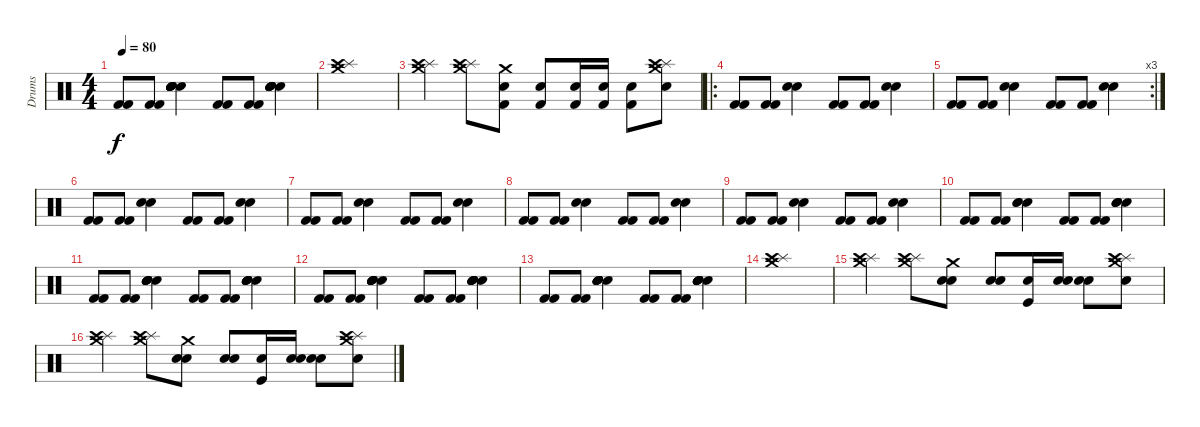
\track ("Drums" "Drums") {instrument percussion}
\staff {score}
\articulation defaults
\ts (4 4)
\tempo 80
\clef neutral
\ks c
("Kick (hit) 2" "Kick (hit) 2").8{dy f} ("Kick (hit) 2" "Kick (hit) 2").8 ("Electric Snare (hit)" "Electric Snare (hit)" "Electric Snare (hit)" "Electric Snare (hit)" "Electric Snare (hit)" "Electric Snare (hit)").4 ("Kick (hit) 2" "Kick (hit) 2").8 ("Kick (hit) 2" "Kick (hit) 2").8 ("Electric Snare (hit)" "Electric Snare (hit)" "Electric Snare (hit)" "Electric Snare (hit)" "Electric Snare (hit)" "Electric Snare (hit)").4 |
("Crash medium (hit)" "Splash (hit)" "Crash high (hit)").1 |
("Crash medium (hit)" "Splash (hit)" "Crash high (hit)").4 ("Crash medium (hit)" "Splash (hit)" "Crash high (hit)").8 ("Crash medium (hit)" "Kick (hit) 2" "Electric Snare (hit)").8 ("Kick (hit) 2" "Electric Snare (hit)").8 ("Kick (hit) 2" "Electric Snare (hit)").16 ("Kick (hit) 2" "Electric Snare (hit)").16 ("Kick (hit) 2" "Electric Snare (hit)").8 ("Crash medium (hit)" "Splash (hit)" "Crash high (hit)" "Electric Snare (hit)").8 |
\ro
("Kick (hit) 2" "Kick (hit) 2").8 ("Kick (hit) 2" "Kick (hit) 2").8 ("Electric Snare (hit)" "Electric Snare (hit)").4 ("Kick (hit) 2" "Kick (hit) 2").8 ("Kick (hit) 2" "Kick (hit) 2").8 ("Electric Snare (hit)" "Electric Snare (hit)").4 |
\rc 3
("Kick (hit) 2" "Kick (hit) 2").8 ("Kick (hit) 2" "Kick (hit) 2").8 ("Electric Snare (hit)" "Electric Snare (hit)").4 ("Kick (hit) 2" "Kick (hit) 2").8 ("Kick (hit) 2" "Kick (hit) 2").8 ("Electric Snare (hit)" "Electric Snare (hit)").4 |
("Kick (hit) 2" "Kick (hit) 2").8 ("Kick (hit) 2" "Kick (hit) 2").8 ("Electric Snare (hit)" "Electric Snare (hit)").4 ("Kick (hit) 2" "Kick (hit) 2").8 ("Kick (hit) 2" "Kick (hit) 2").8 ("Electric Snare (hit)" "Electric Snare (hit)").4 |
("Kick (hit) 2" "Kick (hit) 2").8 ("Kick (hit) 2" "Kick (hit) 2").8 ("Electric Snare (hit)" "Electric Snare (hit)").4 ("Kick (hit) 2" "Kick (hit) 2").8 ("Kick (hit) 2" "Kick (hit) 2").8 ("Electric Snare (hit)" "Electric Snare (hit)").4 |
("Kick (hit) 2" "Kick (hit) 2").8 ("Kick (hit) 2" "Kick (hit) 2").8 ("Electric Snare (hit)" "Electric Snare (hit)").4 ("Kick (hit) 2" "Kick (hit) 2").8 ("Kick (hit) 2" "Kick (hit) 2").8 ("Electric Snare (hit)" "Electric Snare (hit)").4 |
("Kick (hit) 2" "Kick (hit) 2").8 ("Kick (hit) 2" "Kick (hit) 2").8 ("Electric Snare (hit)" "Electric Snare (hit)").4 ("Kick (hit) 2" "Kick (hit) 2").8 ("Kick (hit) 2" "Kick (hit) 2").8 ("Electric Snare (hit)" "Electric Snare (hit)").4 |
("Kick (hit) 2" "Kick (hit) 2").8 ("Kick (hit) 2" "Kick (hit) 2").8 ("Electric Snare (hit)" "Electric Snare (hit)" "Electric Snare (hit)").4 ("Kick (hit) 2" "Kick (hit) 2").8 ("Kick (hit) 2" "Kick (hit) 2").8 ("Electric Snare (hit)" "Electric Snare (hit)" "Electric Snare (hit)" "Electric Snare (hit)").4 |
("Kick (hit) 2" "Kick (hit) 2").8 ("Kick (hit) 2" "Kick (hit) 2").8 ("Electric Snare (hit)" "Electric Snare (hit)" "Electric Snare (hit)" "Electric Snare (hit)" "Electric Snare (hit)").4 ("Kick (hit) 2" "Kick (hit) 2").8 ("Kick (hit) 2" "Kick (hit) 2").8 ("Electric Snare (hit)" "Electric Snare (hit)" "Electric Snare (hit)" "Electric Snare (hit)" "Electric Snare (hit)").4 |
("Kick (hit) 2" "Kick (hit) 2").8 ("Kick (hit) 2" "Kick (hit) 2").8 ("Electric Snare (hit)" "Electric Snare (hit)" "Electric Snare (hit)" "Electric Snare (hit)" "Electric Snare (hit)" "Electric Snare (hit)").4 ("Kick (hit) 2" "Kick (hit) 2").8 ("Kick (hit) 2" "Kick (hit) 2").8 ("Electric Snare (hit)" "Electric Snare (hit)" "Electric Snare (hit)" "Electric Snare (hit)" "Electric Snare (hit)" "Electric Snare (hit)").4 |
("Kick (hit) 2" "Kick (hit) 2").8 ("Kick (hit) 2" "Kick (hit) 2").8 ("Electric Snare (hit)" "Electric Snare (hit)" "Electric Snare (hit)" "Electric Snare (hit)" "Electric Snare (hit)" "Electric Snare (hit)").4 ("Kick (hit) 2" "Kick (hit) 2").8 ("Kick (hit) 2" "Kick (hit) 2").8 ("Electric Snare (hit)" "Electric Snare (hit)" "Electric Snare (hit)" "Electric Snare (hit)" "Electric Snare (hit)" "Electric Snare (hit)").4 |
("Crash medium (hit)" "Splash (hit)" "Crash high (hit)").1 |
("Crash medium (hit)" "Splash (hit)" "Crash high (hit)").4 ("Crash medium (hit)" "Splash (hit)" "Crash high (hit)").8 ("Crash medium (hit)" "Metronome (bell)" "Electric Snare (hit)").8 ("Metronome (bell)" "Electric Snare (hit)").8 ("Kick (hit)" "Electric Snare (hit)").16 ("Metronome (bell)" "Electric Snare (hit)").16 ("Metronome (bell)" "Electric Snare (hit)").8 ("Crash medium (hit)" "Splash (hit)" "Crash high (hit)" "Electric Snare (hit)").8 |
("Crash medium (hit)" "Splash (hit)" "Crash high (hit)").4 ("Crash medium (hit)" "Splash (hit)" "Crash high (hit)").8 ("Crash medium (hit)" "Metronome (bell)" "Electric Snare (hit)").8 ("Metronome (bell)" "Electric Snare (hit)").8 ("Kick (hit)" "Electric Snare (hit)").16 ("Metronome (bell)" "Electric Snare (hit)").16 ("Metronome (bell)" "Electric Snare (hit)").8 ("Crash medium (hit)" "Splash (hit)" "Crash high (hit)" "Electric Snare (hit)").8
